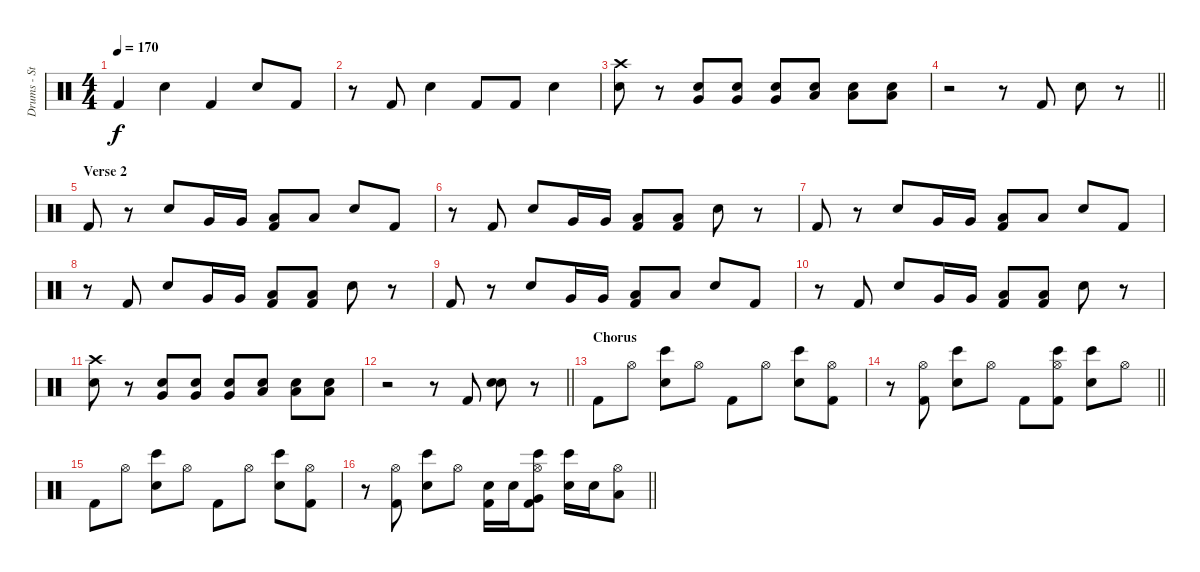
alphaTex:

\track ("Drums - Steeve" "Drums - St") {instrument percussion}
\staff {score}
\articulation defaults
\ts (4 4)
\tempo 170
\clef neutral
\ks c "Kick (hit) 2".4{dy f} "Electric Snare (hit)".4 "Kick (hit) 2".4 "Electric Snare (hit)".8 "Kick (hit) 2".8
|
r.8 "Kick (hit) 2".8 "Electric Snare (hit)".4 "Kick (hit) 2".8 "Kick (hit) 2".8 "Electric Snare (hit)".4 |
("Crash high (hit)" "Electric Snare (hit)").8 r.8 ("Electric Snare (hit)" "Very Low Tom (hit)").8 ("Electric Snare (hit)" "Very Low Tom (hit)").8 ("Electric Snare (hit)" "Very Low Tom (hit)").8 ("Electric Snare (hit)" "Low Floor Tom (hit)").8 ("Electric Snare (hit)" "Low Floor Tom (hit)").8 ("Electric Snare (hit)" "Low Floor Tom (hit)").8 |
\barLineRight lightlight
r.2 r.8 "Kick (hit) 2".8 "Electric Snare (hit)".8 r.8 |
\section ("" "Verse 2")
"Kick (hit) 2".8 r.8 "Electric Snare (hit)".8 "Very Low Tom (hit)".16 "Very Low Tom (hit)".16 ("Kick (hit) 2" "Low Floor Tom (hit)").8 "Low Floor Tom (hit)".8 "Electric Snare (hit)".8 "Kick (hit) 2".8 |
r.8 "Kick (hit) 2".8 "Electric Snare (hit)".8 "Very Low Tom (hit)".16 "Very Low Tom (hit)".16 ("Kick (hit) 2" "Low Floor Tom (hit)").8 ("Kick (hit) 2" "Low Floor Tom (hit)").8 "Electric Snare (hit)".8 r.8 |
"Kick (hit) 2".8 r.8 "Electric Snare (hit)".8 "Very Low Tom (hit)".16 "Very Low Tom (hit)".16 ("Kick (hit) 2" "Low Floor Tom (hit)").8 "Low Floor Tom (hit)".8 "Electric Snare (hit)".8 "Kick (hit) 2".8 |
r.8 "Kick (hit) 2".8 "Electric Snare (hit)".8 "Very Low Tom (hit)".16 "Very Low Tom (hit)".16 ("Kick (hit) 2" "Low Floor Tom (hit)").8 ("Kick (hit) 2" "Low Floor Tom (hit)").8 "Electric Snare (hit)".8 r.8 |
"Kick (hit) 2".8 r.8 "Electric Snare (hit)".8 "Very Low Tom (hit)".16 "Very Low Tom (hit)".16 ("Kick (hit) 2" "Low Floor Tom (hit)").8 "Low Floor Tom (hit)".8 "Electric Snare (hit)".8 "Kick (hit) 2".8 |
r.8 "Kick (hit) 2".8 "Electric Snare (hit)".8 "Very Low Tom (hit)".16 "Very Low Tom (hit)".16 ("Kick (hit) 2" "Low Floor Tom (hit)").8 ("Kick (hit) 2" "Low Floor Tom (hit)").8 "Electric Snare (hit)".8 r.8 |
("Crash high (hit)" "Electric Snare (hit)").8 r.8 ("Electric Snare (hit)" "Very Low Tom (hit)").8 ("Electric Snare (hit)" "Very Low Tom (hit)").8 ("Electric Snare (hit)" "Very Low Tom (hit)").8 ("Electric Snare (hit)" "Low Floor Tom (hit)").8 ("Electric Snare (hit)" "Low Floor Tom (hit)").8 ("Electric Snare (hit)" "Low Floor Tom (hit)").8 |
\barLineRight lightlight
r.2 r.8 "Kick (hit) 2".8 ("Electric Snare (hit)" "Electric Snare (hit)").8 r.8 |
\section ("" "Chorus")
"Kick (hit) 2".8 "Hi-Hat (open)".8 ("Electric Snare (hit)" "Bongo High (hit)").8 "Hi-Hat (open)".8 "Kick (hit) 2".8 "Hi-Hat (open)".8 ("Electric Snare (hit)" "Bongo High (hit)").8 ("Hi-Hat (open)" "Kick (hit) 2").8 |
\barLineRight lightlight
r.8 ("Hi-Hat (open)" "Kick (hit) 2").8 ("Electric Snare (hit)" "Bongo High (hit)").8 "Hi-Hat (open)".8 "Kick (hit) 2".8 ("Hi-Hat (open)" "Kick (hit) 2" "Bongo High (hit)").8 ("Electric Snare (hit)" "Bongo High (hit)").8 "Hi-Hat (open)".8 |
"Kick (hit) 2".8 "Hi-Hat (open)".8 ("Electric Snare (hit)" "Bongo High (hit)").8 "Hi-Hat (open)".8 "Kick (hit) 2".8 "Hi-Hat (open)".8 ("Electric Snare (hit)" "Bongo High (hit)").8 ("Hi-Hat (open)" "Kick (hit) 2").8 |
\barLineRight lightlight
r.8 ("Hi-Hat (open)" "Kick (hit) 2").8 ("Electric Snare (hit)" "Bongo High (hit)").8 "Hi-Hat (open)".8 ("Kick (hit) 2" "Electric Snare (hit)").16 "Electric Snare (hit)".16 ("Hi-Hat (open)" "Kick (hit) 2" "Very Low Tom (hit)" "Bongo High (hit)").8 ("Electric Snare (hit)" "Bongo High (hit)").16 "Electric Snare (hit)".16 ("Hi-Hat (open)" "Low Floor Tom (hit)").8
